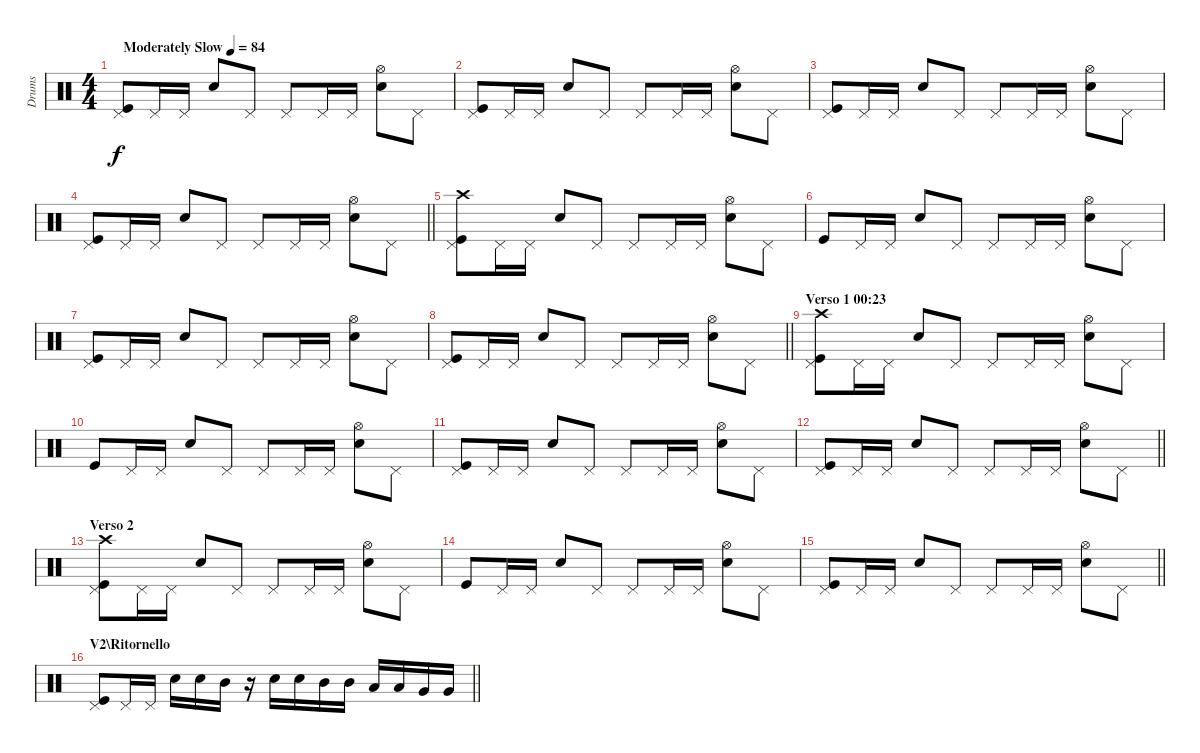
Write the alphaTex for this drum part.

\track ("Drums" "Drums") {instrument percussion}
\staff {score}
\articulation defaults
\ts (4 4)
\tempo (84 "Moderately Slow")
\clef neutral
\ks c
("Pedal Hi-Hat (hit)" "Kick (hit)").8{dy f} "Pedal Hi-Hat (hit)".16 "Pedal Hi-Hat (hit)".16 "Snare (hit) 2".8 "Pedal Hi-Hat (hit)".8 "Pedal Hi-Hat (hit)".8 "Pedal Hi-Hat (hit)".16 "Pedal Hi-Hat (hit)".16 ("Hi-Hat (open)" "Snare (hit) 2").8 "Pedal Hi-Hat (hit)".8 |
("Pedal Hi-Hat (hit)" "Kick (hit)").8 "Pedal Hi-Hat (hit)".16 "Pedal Hi-Hat (hit)".16 "Snare (hit) 2".8 "Pedal Hi-Hat (hit)".8 "Pedal Hi-Hat (hit)".8 "Pedal Hi-Hat (hit)".16 "Pedal Hi-Hat (hit)".16 ("Hi-Hat (open)" "Snare (hit) 2").8 "Pedal Hi-Hat (hit)".8 |
("Pedal Hi-Hat (hit)" "Kick (hit)").8 "Pedal Hi-Hat (hit)".16 "Pedal Hi-Hat (hit)".16 "Snare (hit) 2".8 "Pedal Hi-Hat (hit)".8 "Pedal Hi-Hat (hit)".8 "Pedal Hi-Hat (hit)".16 "Pedal Hi-Hat (hit)".16 ("Hi-Hat (open)" "Snare (hit) 2").8 "Pedal Hi-Hat (hit)".8 |
\barLineRight lightlight
("Pedal Hi-Hat (hit)" "Kick (hit)").8 "Pedal Hi-Hat (hit)".16 "Pedal Hi-Hat (hit)".16 "Snare (hit) 2".8 "Pedal Hi-Hat (hit)".8 "Pedal Hi-Hat (hit)".8 "Pedal Hi-Hat (hit)".16 "Pedal Hi-Hat (hit)".16 ("Hi-Hat (open)" "Snare (hit) 2").8 "Pedal Hi-Hat (hit)".8 |
("Pedal Hi-Hat (hit)" "Kick (hit)" "Crash high (hit)").8 "Pedal Hi-Hat (hit)".16 "Pedal Hi-Hat (hit)".16 "Snare (hit) 2".8 "Pedal Hi-Hat (hit)".8 "Pedal Hi-Hat (hit)".8 "Pedal Hi-Hat (hit)".16 "Pedal Hi-Hat (hit)".16 ("Hi-Hat (open)" "Snare (hit) 2").8 "Pedal Hi-Hat (hit)".8 |
"Kick (hit)".8 "Pedal Hi-Hat (hit)".16 "Pedal Hi-Hat (hit)".16 "Snare (hit) 2".8 "Pedal Hi-Hat (hit)".8 "Pedal Hi-Hat (hit)".8 "Pedal Hi-Hat (hit)".16 "Pedal Hi-Hat (hit)".16 ("Hi-Hat (open)" "Snare (hit) 2").8 "Pedal Hi-Hat (hit)".8 |
("Pedal Hi-Hat (hit)" "Kick (hit)").8 "Pedal Hi-Hat (hit)".16 "Pedal Hi-Hat (hit)".16 "Snare (hit) 2".8 "Pedal Hi-Hat (hit)".8 "Pedal Hi-Hat (hit)".8 "Pedal Hi-Hat (hit)".16 "Pedal Hi-Hat (hit)".16 ("Hi-Hat (open)" "Snare (hit) 2").8 "Pedal Hi-Hat (hit)".8 |
\barLineRight lightlight
("Pedal Hi-Hat (hit)" "Kick (hit)").8 "Pedal Hi-Hat (hit)".16 "Pedal Hi-Hat (hit)".16 "Snare (hit) 2".8 "Pedal Hi-Hat (hit)".8 "Pedal Hi-Hat (hit)".8 "Pedal Hi-Hat (hit)".16 "Pedal Hi-Hat (hit)".16 ("Hi-Hat (open)" "Snare (hit) 2").8 "Pedal Hi-Hat (hit)".8 |
\section ("" "Verso 1 00:23")
("Pedal Hi-Hat (hit)" "Kick (hit)" "Crash high (hit)").8 "Pedal Hi-Hat (hit)".16 "Pedal Hi-Hat (hit)".16 "Snare (hit) 2".8 "Pedal Hi-Hat (hit)".8 "Pedal Hi-Hat (hit)".8 "Pedal Hi-Hat (hit)".16 "Pedal Hi-Hat (hit)".16 ("Hi-Hat (open)" "Snare (hit) 2").8 "Pedal Hi-Hat (hit)".8 |
"Kick (hit)".8 "Pedal Hi-Hat (hit)".16 "Pedal Hi-Hat (hit)".16 "Snare (hit) 2".8 "Pedal Hi-Hat (hit)".8 "Pedal Hi-Hat (hit)".8 "Pedal Hi-Hat (hit)".16 "Pedal Hi-Hat (hit)".16 ("Hi-Hat (open)" "Snare (hit) 2").8 "Pedal Hi-Hat (hit)".8 |
("Pedal Hi-Hat (hit)" "Kick (hit)").8 "Pedal Hi-Hat (hit)".16 "Pedal Hi-Hat (hit)".16 "Snare (hit) 2".8 "Pedal Hi-Hat (hit)".8 "Pedal Hi-Hat (hit)".8 "Pedal Hi-Hat (hit)".16 "Pedal Hi-Hat (hit)".16 ("Hi-Hat (open)" "Snare (hit) 2").8 "Pedal Hi-Hat (hit)".8 |
\barLineRight lightlight
("Pedal Hi-Hat (hit)" "Kick (hit)").8 "Pedal Hi-Hat (hit)".16 "Pedal Hi-Hat (hit)".16 "Snare (hit) 2".8 "Pedal Hi-Hat (hit)".8 "Pedal Hi-Hat (hit)".8 "Pedal Hi-Hat (hit)".16 "Pedal Hi-Hat (hit)".16 ("Hi-Hat (open)" "Snare (hit) 2").8 "Pedal Hi-Hat (hit)".8 |
\section ("" "Verso 2")
("Pedal Hi-Hat (hit)" "Kick (hit)" "Crash high (hit)").8 "Pedal Hi-Hat (hit)".16 "Pedal Hi-Hat (hit)".16 "Snare (hit) 2".8 "Pedal Hi-Hat (hit)".8 "Pedal Hi-Hat (hit)".8 "Pedal Hi-Hat (hit)".16 "Pedal Hi-Hat (hit)".16 ("Hi-Hat (open)" "Snare (hit) 2").8 "Pedal Hi-Hat (hit)".8 |
"Kick (hit)".8 "Pedal Hi-Hat (hit)".16 "Pedal Hi-Hat (hit)".16 "Snare (hit) 2".8 "Pedal Hi-Hat (hit)".8 "Pedal Hi-Hat (hit)".8 "Pedal Hi-Hat (hit)".16 "Pedal Hi-Hat (hit)".16 ("Hi-Hat (open)" "Snare (hit) 2").8 "Pedal Hi-Hat (hit)".8 |
\barLineRight lightlight
("Pedal Hi-Hat (hit)" "Kick (hit)").8 "Pedal Hi-Hat (hit)".16 "Pedal Hi-Hat (hit)".16 "Snare (hit) 2".8 "Pedal Hi-Hat (hit)".8 "Pedal Hi-Hat (hit)".8 "Pedal Hi-Hat (hit)".16 "Pedal Hi-Hat (hit)".16 ("Hi-Hat (open)" "Snare (hit) 2").8 "Pedal Hi-Hat (hit)".8 |
\section ("" "V2\\Ritornello")
\barLineRight lightlight
("Pedal Hi-Hat (hit)" "Kick (hit)").8 "Pedal Hi-Hat (hit)".16 "Pedal Hi-Hat (hit)".16 "Snare (hit) 2".16 "Snare (hit) 2".16 "Mid Tom (hit)".16 r.16 "Snare (hit) 2".16 "Snare (hit) 2".16 "Mid Tom (hit)".16 "Mid Tom (hit)".16 "Low Tom (hit)".16 "Low Tom (hit)".16 "Very Low Tom (hit)".16 "Very Low Tom (hit)".16
